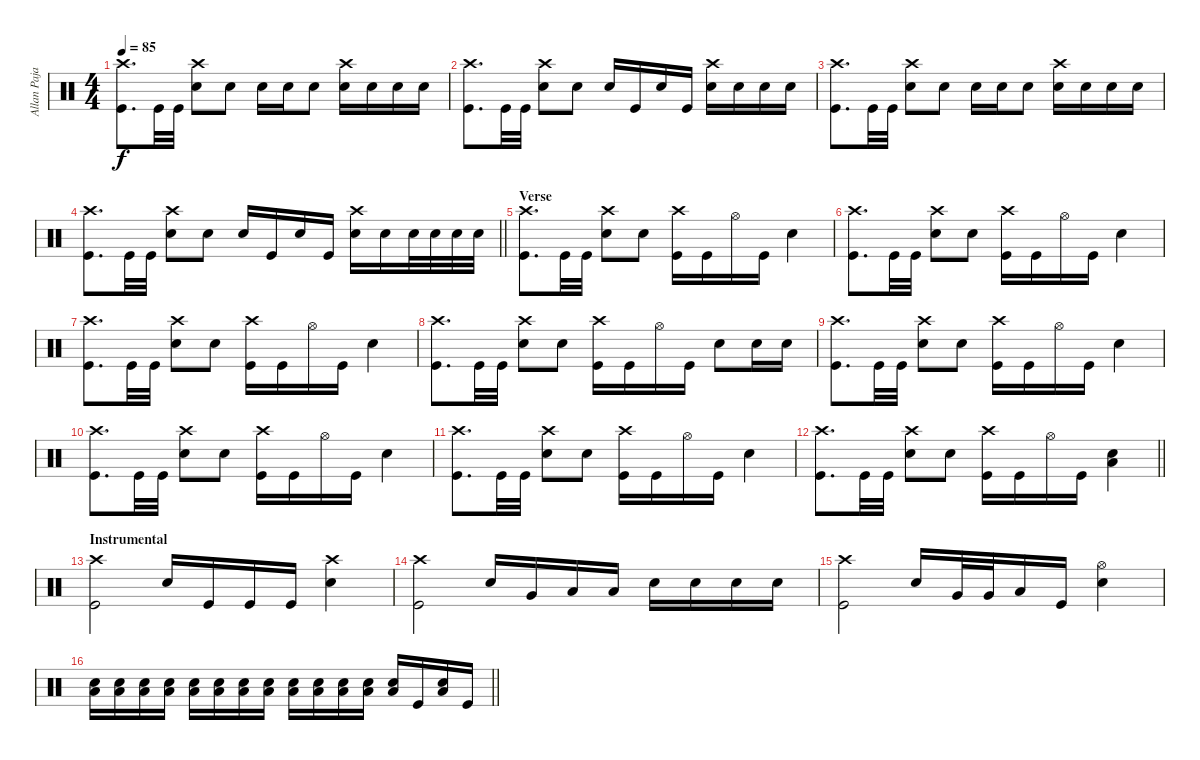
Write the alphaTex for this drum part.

\track ("Allan Pajarin (Drums)" "Allan Paja") {instrument percussion}
\staff {score}
\articulation defaults
\ts (4 4)
\tempo 85
\clef neutral
\ks c
("Crash high (hit)" "Kick (hit)").8{d dy f} "Kick (hit)".32 "Kick (hit)".32 ("Crash high (hit)" "Electric Snare (hit)").8 "Electric Snare (hit)".8 "Electric Snare (hit)".16 "Electric Snare (hit)".16 "Electric Snare (hit)".8 ("Electric Snare (hit)" "Crash high (hit)").16 "Electric Snare (hit)".16 "Electric Snare (hit)".16 "Electric Snare (hit)".16 |
("Crash high (hit)" "Kick (hit)").8{d} "Kick (hit)".32 "Kick (hit)".32 ("Crash high (hit)" "Electric Snare (hit)").8 "Electric Snare (hit)".8 "Electric Snare (hit)".16 "Kick (hit)".16 "Electric Snare (hit)".16 "Kick (hit)".16 ("Electric Snare (hit)" "Crash high (hit)").16 "Electric Snare (hit)".16 "Electric Snare (hit)".16 "Electric Snare (hit)".16 |
("Crash high (hit)" "Kick (hit)").8{d} "Kick (hit)".32 "Kick (hit)".32 ("Crash high (hit)" "Electric Snare (hit)").8 "Electric Snare (hit)".8 "Electric Snare (hit)".16 "Electric Snare (hit)".16 "Electric Snare (hit)".8 ("Electric Snare (hit)" "Crash high (hit)").16 "Electric Snare (hit)".16 "Electric Snare (hit)".16 "Electric Snare (hit)".16 |
\barLineRight lightlight
("Crash high (hit)" "Kick (hit)").8{d} "Kick (hit)".32 "Kick (hit)".32 ("Crash high (hit)" "Electric Snare (hit)").8 "Electric Snare (hit)".8 "Electric Snare (hit)".16 "Kick (hit)".16 "Electric Snare (hit)".16 "Kick (hit)".16 ("Electric Snare (hit)" "Crash high (hit)").16 "Electric Snare (hit)".16 "Electric Snare (hit)".32 "Electric Snare (hit)".32 "Electric Snare (hit)".32 "Electric Snare (hit)".32 |
\section ("" "Verse")
("Crash high (hit)" "Kick (hit)").8{d} "Kick (hit)".32 "Kick (hit)".32 ("Crash high (hit)" "Electric Snare (hit)").8 "Electric Snare (hit)".8 ("Crash high (hit)" "Kick (hit)").16 "Kick (hit)".16 "Hi-Hat (open)".16 "Kick (hit)".16 "Electric Snare (hit)".4 |
("Crash high (hit)" "Kick (hit)").8{d} "Kick (hit)".32 "Kick (hit)".32 ("Crash high (hit)" "Electric Snare (hit)").8 "Electric Snare (hit)".8 ("Crash high (hit)" "Kick (hit)").16 "Kick (hit)".16 "Hi-Hat (open)".16 "Kick (hit)".16 "Electric Snare (hit)".4 |
("Crash high (hit)" "Kick (hit)").8{d} "Kick (hit)".32 "Kick (hit)".32 ("Crash high (hit)" "Electric Snare (hit)").8 "Electric Snare (hit)".8 ("Crash high (hit)" "Kick (hit)").16 "Kick (hit)".16 "Hi-Hat (open)".16 "Kick (hit)".16 "Electric Snare (hit)".4 |
("Crash high (hit)" "Kick (hit)").8{d} "Kick (hit)".32 "Kick (hit)".32 ("Crash high (hit)" "Electric Snare (hit)").8 "Electric Snare (hit)".8 ("Crash high (hit)" "Kick (hit)").16 "Kick (hit)".16 "Hi-Hat (open)".16 "Kick (hit)".16 "Electric Snare (hit)".8 "Electric Snare (hit)".16 "Electric Snare (hit)".16 |
("Crash high (hit)" "Kick (hit)").8{d} "Kick (hit)".32 "Kick (hit)".32 ("Crash high (hit)" "Electric Snare (hit)").8 "Electric Snare (hit)".8 ("Crash high (hit)" "Kick (hit)").16 "Kick (hit)".16 "Hi-Hat (open)".16 "Kick (hit)".16 "Electric Snare (hit)".4 |
("Crash high (hit)" "Kick (hit)").8{d} "Kick (hit)".32 "Kick (hit)".32 ("Crash high (hit)" "Electric Snare (hit)").8 "Electric Snare (hit)".8 ("Crash high (hit)" "Kick (hit)").16 "Kick (hit)".16 "Hi-Hat (open)".16 "Kick (hit)".16 "Electric Snare (hit)".4 |
("Crash high (hit)" "Kick (hit)").8{d} "Kick (hit)".32 "Kick (hit)".32 ("Crash high (hit)" "Electric Snare (hit)").8 "Electric Snare (hit)".8 ("Crash high (hit)" "Kick (hit)").16 "Kick (hit)".16 "Hi-Hat (open)".16 "Kick (hit)".16 "Electric Snare (hit)".4 |
\barLineRight lightlight
("Crash high (hit)" "Kick (hit)").8{d} "Kick (hit)".32 "Kick (hit)".32 ("Crash high (hit)" "Electric Snare (hit)").8 "Electric Snare (hit)".8 ("Crash high (hit)" "Kick (hit)").16 "Kick (hit)".16 "Hi-Hat (open)".16 "Kick (hit)".16 ("Electric Snare (hit)" "Low Floor Tom (hit)").4 |
\section ("" "Instrumental")
("Crash high (hit)" "Kick (hit)").2 "Electric Snare (hit)".16 "Kick (hit)".16 "Kick (hit)".16 "Kick (hit)".16 ("Electric Snare (hit)" "Crash high (hit)").4 |
("Crash high (hit)" "Kick (hit)").2 "Electric Snare (hit)".16 "Very Low Tom (hit)".16 "Low Floor Tom (hit)".16 "Low Floor Tom (hit)".16 "Electric Snare (hit)".16 "Electric Snare (hit)".16 "Electric Snare (hit)".16 "Electric Snare (hit)".16 |
("Crash high (hit)" "Kick (hit)").2 "Electric Snare (hit)".16 "Very Low Tom (hit)".32 "Very Low Tom (hit)".32 "Low Floor Tom (hit)".16 "Kick (hit)".16 ("Electric Snare (hit)" "Hi-Hat (open)").4 |
\barLineRight lightlight
("Low Floor Tom (hit)" "Electric Snare (hit)").16{volume 16} ("Low Floor Tom (hit)" "Electric Snare (hit)").16 ("Low Floor Tom (hit)" "Electric Snare (hit)").16 ("Low Floor Tom (hit)" "Electric Snare (hit)").16 ("Low Floor Tom (hit)" "Electric Snare (hit)").16 ("Low Floor Tom (hit)" "Electric Snare (hit)").16 ("Low Floor Tom (hit)" "Electric Snare (hit)").16 ("Low Floor Tom (hit)" "Electric Snare (hit)").16 ("Low Floor Tom (hit)" "Electric Snare (hit)").16 ("Low Floor Tom (hit)" "Electric Snare (hit)").16 ("Low Floor Tom (hit)" "Electric Snare (hit)").16 ("Low Floor Tom (hit)" "Electric Snare (hit)").16 ("Electric Snare (hit)" "Low Floor Tom (hit)").16 "Kick (hit)".16 ("Electric Snare (hit)" "Low Floor Tom (hit)").16 "Kick (hit)".16
